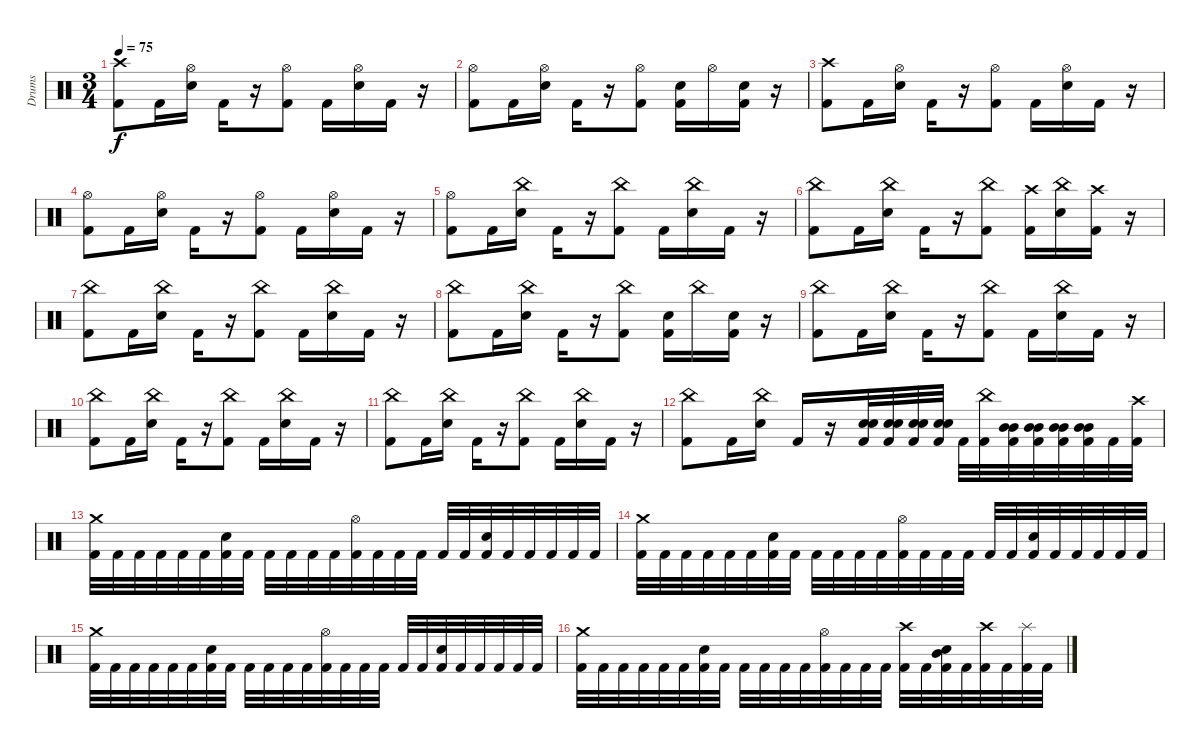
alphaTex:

\track ("Drums" "Drums") {instrument percussion}
\staff {score}
\articulation defaults
\ts (3 4)
\tempo 75
\clef neutral
\ks c
("Crash high (hit)" "Kick (hit) 2").8{dy f} "Kick (hit) 2".16 ("Hi-Hat (open)" "Snare (hit) 2").16 "Kick (hit) 2".16 r.16 ("Hi-Hat (open)" "Kick (hit) 2").8 "Kick (hit) 2".16 ("Hi-Hat (open)" "Snare (hit) 2").16 "Kick (hit) 2".16 r.16 |
("Hi-Hat (open)" "Kick (hit) 2").8 "Kick (hit) 2".16 ("Hi-Hat (open)" "Snare (hit) 2").16 "Kick (hit) 2".16 r.16 ("Hi-Hat (open)" "Kick (hit) 2").8 ("Snare (hit) 2" "Kick (hit) 2").16 "Hi-Hat (open)".16 ("Snare (hit) 2" "Kick (hit) 2").16 r.16 |
("Crash high (hit)" "Kick (hit) 2").8 "Kick (hit) 2".16 ("Hi-Hat (open)" "Snare (hit) 2").16 "Kick (hit) 2".16 r.16 ("Hi-Hat (open)" "Kick (hit) 2").8 "Kick (hit) 2".16 ("Hi-Hat (open)" "Snare (hit) 2").16 "Kick (hit) 2".16 r.16 |
("Hi-Hat (open)" "Kick (hit) 2").8 "Kick (hit) 2".16 ("Hi-Hat (open)" "Snare (hit) 2").16 "Kick (hit) 2".16 r.16 ("Hi-Hat (open)" "Kick (hit) 2").8 "Kick (hit) 2".16 ("Hi-Hat (open)" "Snare (hit) 2").16 "Kick (hit) 2".16 r.16 |
("Hi-Hat (open)" "Kick (hit) 2").8 "Kick (hit) 2".16 ("China (hit)" "Snare (hit) 2").16 "Kick (hit) 2".16 r.16 ("China (hit)" "Kick (hit) 2").8 "Kick (hit) 2".16 ("China (hit)" "Snare (hit) 2").16 "Kick (hit) 2".16 r.16 |
("China (hit)" "Kick (hit) 2").8 "Kick (hit) 2".16 ("China (hit)" "Snare (hit) 2").16 "Kick (hit) 2".16 r.16 ("China (hit)" "Kick (hit) 2").8 ("Crash high (hit)" "Kick (hit) 2").16 ("China (hit)" "Snare (hit) 2").16 ("Crash high (hit)" "Kick (hit) 2").16 r.16 |
("China (hit)" "Kick (hit) 2").8 "Kick (hit) 2".16 ("China (hit)" "Snare (hit) 2").16 "Kick (hit) 2".16 r.16 ("China (hit)" "Kick (hit) 2").8 "Kick (hit) 2".16 ("China (hit)" "Snare (hit) 2").16 "Kick (hit) 2".16 r.16 |
("China (hit)" "Kick (hit) 2").8 "Kick (hit) 2".16 ("China (hit)" "Snare (hit) 2").16 "Kick (hit) 2".16 r.16 ("China (hit)" "Kick (hit) 2").8 ("Snare (hit) 2" "Kick (hit) 2").16 "China (hit)".16 ("Snare (hit) 2" "Kick (hit) 2").16 r.16 |
("China (hit)" "Kick (hit) 2").8 "Kick (hit) 2".16 ("China (hit)" "Snare (hit) 2").16 "Kick (hit) 2".16 r.16 ("China (hit)" "Kick (hit) 2").8 "Kick (hit) 2".16 ("China (hit)" "Snare (hit) 2").16 "Kick (hit) 2".16 r.16 |
("China (hit)" "Kick (hit) 2").8 "Kick (hit) 2".16 ("China (hit)" "Snare (hit) 2").16 "Kick (hit) 2".16 r.16 ("China (hit)" "Kick (hit) 2").8 "Kick (hit) 2".16 ("China (hit)" "Snare (hit) 2").16 "Kick (hit) 2".16 r.16 |
("China (hit)" "Kick (hit) 2").8 "Kick (hit) 2".16 ("China (hit)" "Snare (hit) 2").16 "Kick (hit) 2".16 r.16 ("China (hit)" "Kick (hit) 2").8 "Kick (hit) 2".16 ("China (hit)" "Snare (hit) 2").16 "Kick (hit) 2".16 r.16 |
("China (hit)" "Kick (hit) 2").8 "Kick (hit) 2".16 ("China (hit)" "Snare (hit) 2").16 "Kick (hit) 2".16 r.16 ("Snare (hit) 2" "Snare (hit) 2" "Kick (hit) 2").32 ("Snare (hit) 2" "Snare (hit) 2" "Kick (hit) 2").32 ("Snare (hit) 2" "Snare (hit) 2" "Kick (hit) 2").32 ("Snare (hit) 2" "Snare (hit) 2" "Kick (hit) 2").32 "Kick (hit) 2".32 ("China (hit)" "Kick (hit) 2").32 ("Mid Tom (hit)" "Mid Tom (hit)" "Kick (hit) 2").32 ("Mid Tom (hit)" "Mid Tom (hit)" "Kick (hit) 2").32 ("Mid Tom (hit)" "Mid Tom (hit)" "Kick (hit) 2").32 ("Mid Tom (hit)" "Mid Tom (hit)" "Kick (hit) 2").32 "Kick (hit) 2".32 ("Crash high (hit)" "Kick (hit) 2").32 |
("Crash medium (hit)" "Kick (hit) 2").32 "Kick (hit) 2".32 "Kick (hit) 2".32 "Kick (hit) 2".32 "Kick (hit) 2".32 "Kick (hit) 2".32 ("Snare (hit) 2" "Kick (hit) 2").32 "Kick (hit) 2".32 "Kick (hit) 2".32 "Kick (hit) 2".32 "Kick (hit) 2".32 "Kick (hit) 2".32 ("Hi-Hat (open)" "Kick (hit) 2").32 "Kick (hit) 2".32 "Kick (hit) 2".32 "Kick (hit) 2".32 "Kick (hit) 2".32 "Kick (hit) 2".32 ("Snare (hit) 2" "Kick (hit) 2").32 "Kick (hit) 2".32 "Kick (hit) 2".32 "Kick (hit) 2".32 "Kick (hit) 2".32 "Kick (hit) 2".32 |
("Crash medium (hit)" "Kick (hit) 2").32 "Kick (hit) 2".32 "Kick (hit) 2".32 "Kick (hit) 2".32 "Kick (hit) 2".32 "Kick (hit) 2".32 ("Snare (hit) 2" "Kick (hit) 2").32 "Kick (hit) 2".32 "Kick (hit) 2".32 "Kick (hit) 2".32 "Kick (hit) 2".32 "Kick (hit) 2".32 ("Hi-Hat (open)" "Kick (hit) 2").32 "Kick (hit) 2".32 "Kick (hit) 2".32 "Kick (hit) 2".32 "Kick (hit) 2".32 "Kick (hit) 2".32 ("Snare (hit) 2" "Kick (hit) 2").32 "Kick (hit) 2".32 "Kick (hit) 2".32 "Kick (hit) 2".32 "Kick (hit) 2".32 "Kick (hit) 2".32 |
("Crash medium (hit)" "Kick (hit) 2").32 "Kick (hit) 2".32 "Kick (hit) 2".32 "Kick (hit) 2".32 "Kick (hit) 2".32 "Kick (hit) 2".32 ("Snare (hit) 2" "Kick (hit) 2").32 "Kick (hit) 2".32 "Kick (hit) 2".32 "Kick (hit) 2".32 "Kick (hit) 2".32 "Kick (hit) 2".32 ("Hi-Hat (open)" "Kick (hit) 2").32 "Kick (hit) 2".32 "Kick (hit) 2".32 "Kick (hit) 2".32 "Kick (hit) 2".32 "Kick (hit) 2".32 ("Snare (hit) 2" "Kick (hit) 2").32 "Kick (hit) 2".32 "Kick (hit) 2".32 "Kick (hit) 2".32 "Kick (hit) 2".32 "Kick (hit) 2".32 |
("Crash medium (hit)" "Kick (hit) 2").32 "Kick (hit) 2".32 "Kick (hit) 2".32 "Kick (hit) 2".32 "Kick (hit) 2".32 "Kick (hit) 2".32 ("Snare (hit) 2" "Kick (hit) 2").32 "Kick (hit) 2".32 "Kick (hit) 2".32 "Kick (hit) 2".32 "Kick (hit) 2".32 "Kick (hit) 2".32 ("Hi-Hat (open)" "Kick (hit) 2").32 "Kick (hit) 2".32 "Kick (hit) 2".32 "Kick (hit) 2".32 ("Crash high (hit)" "Kick (hit) 2").32 "Kick (hit) 2".32 ("Mid Tom (hit)" "Snare (hit) 2" "Kick (hit) 2").32 "Kick (hit) 2".32 ("Crash high (hit)" "Kick (hit) 2").32 "Kick (hit) 2".32 ("Splash (hit)" "Kick (hit) 2").32 "Kick (hit) 2".32
